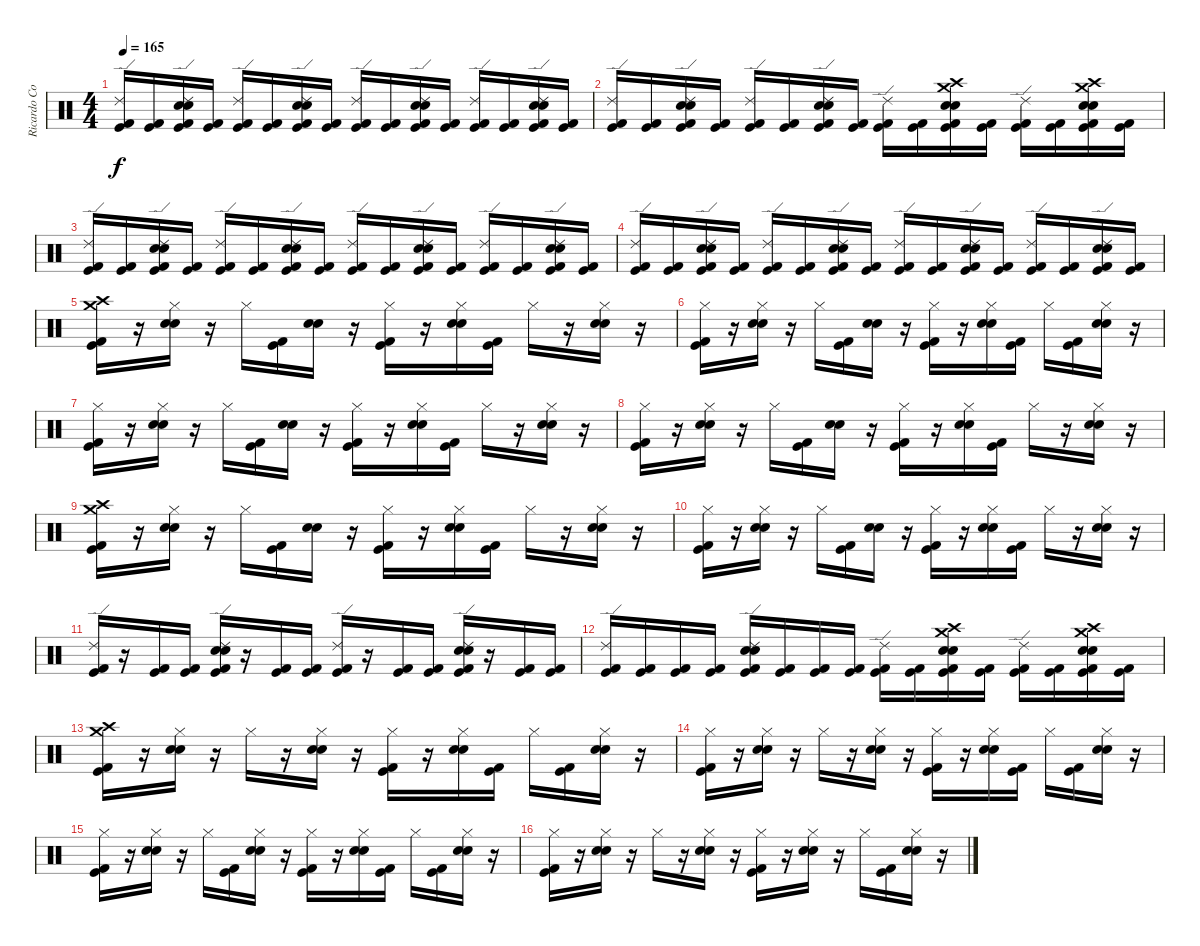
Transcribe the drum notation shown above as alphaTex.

\track ("Ricardo Confessori" "Ricardo Co") {instrument percussion}
\staff {score}
\articulation defaults
\ts (4 4)
\tempo 165
\clef neutral
\ks c
("Ride (edge) 2" "Kick (hit) 2" "Kick (hit)").16{dy f} ("Kick (hit) 2" "Kick (hit)").16 ("Ride (edge) 2" "Electric Snare (hit)" "Snare (hit) 2" "Kick (hit) 2" "Kick (hit)").16 ("Kick (hit) 2" "Kick (hit)").16 ("Ride (edge) 2" "Kick (hit) 2" "Kick (hit)").16 ("Kick (hit) 2" "Kick (hit)").16 ("Ride (edge) 2" "Electric Snare (hit)" "Snare (hit) 2" "Kick (hit) 2" "Kick (hit)").16 ("Kick (hit) 2" "Kick (hit)").16 ("Ride (edge) 2" "Kick (hit) 2" "Kick (hit)").16 ("Kick (hit) 2" "Kick (hit)").16 ("Ride (edge) 2" "Electric Snare (hit)" "Snare (hit) 2" "Kick (hit) 2" "Kick (hit)").16 ("Kick (hit) 2" "Kick (hit)").16 ("Ride (edge) 2" "Kick (hit) 2" "Kick (hit)").16 ("Kick (hit) 2" "Kick (hit)").16 ("Ride (edge) 2" "Electric Snare (hit)" "Snare (hit) 2" "Kick (hit) 2" "Kick (hit)").16 ("Kick (hit) 2" "Kick (hit)").16 |
("Ride (edge) 2" "Kick (hit) 2" "Kick (hit)").16 ("Kick (hit) 2" "Kick (hit)").16 ("Ride (edge) 2" "Electric Snare (hit)" "Snare (hit) 2" "Kick (hit) 2" "Kick (hit)").16 ("Kick (hit) 2" "Kick (hit)").16 ("Ride (edge) 2" "Kick (hit) 2" "Kick (hit)").16 ("Kick (hit) 2" "Kick (hit)").16 ("Ride (edge) 2" "Electric Snare (hit)" "Snare (hit) 2" "Kick (hit) 2" "Kick (hit)").16 ("Kick (hit) 2" "Kick (hit)").16 ("Ride (edge) 2" "Kick (hit) 2" "Kick (hit)").16 ("Kick (hit) 2" "Kick (hit)").16 ("Crash high (hit)" "Crash medium (hit)" "Electric Snare (hit)" "Snare (hit) 2" "Kick (hit) 2" "Kick (hit)").16 ("Kick (hit) 2" "Kick (hit)").16 ("Ride (edge) 2" "Kick (hit) 2" "Kick (hit)").16 ("Kick (hit) 2" "Kick (hit)").16 ("Crash high (hit)" "Crash medium (hit)" "Electric Snare (hit)" "Snare (hit) 2" "Kick (hit) 2" "Kick (hit)").16 ("Kick (hit) 2" "Kick (hit)").16 |
("Ride (edge) 2" "Kick (hit) 2" "Kick (hit)").16 ("Kick (hit) 2" "Kick (hit)").16 ("Ride (edge) 2" "Electric Snare (hit)" "Snare (hit) 2" "Kick (hit) 2" "Kick (hit)").16 ("Kick (hit) 2" "Kick (hit)").16 ("Ride (edge) 2" "Kick (hit) 2" "Kick (hit)").16 ("Kick (hit) 2" "Kick (hit)").16 ("Ride (edge) 2" "Electric Snare (hit)" "Snare (hit) 2" "Kick (hit) 2" "Kick (hit)").16 ("Kick (hit) 2" "Kick (hit)").16 ("Ride (edge) 2" "Kick (hit) 2" "Kick (hit)").16 ("Kick (hit) 2" "Kick (hit)").16 ("Ride (edge) 2" "Electric Snare (hit)" "Snare (hit) 2" "Kick (hit) 2" "Kick (hit)").16 ("Kick (hit) 2" "Kick (hit)").16 ("Ride (edge) 2" "Kick (hit) 2" "Kick (hit)").16 ("Kick (hit) 2" "Kick (hit)").16 ("Ride (edge) 2" "Electric Snare (hit)" "Snare (hit) 2" "Kick (hit) 2" "Kick (hit)").16 ("Kick (hit) 2" "Kick (hit)").16 |
("Ride (edge) 2" "Kick (hit) 2" "Kick (hit)").16 ("Kick (hit) 2" "Kick (hit)").16 ("Ride (edge) 2" "Electric Snare (hit)" "Snare (hit) 2" "Kick (hit) 2" "Kick (hit)").16 ("Kick (hit) 2" "Kick (hit)").16 ("Ride (edge) 2" "Kick (hit) 2" "Kick (hit)").16 ("Kick (hit) 2" "Kick (hit)").16 ("Ride (edge) 2" "Electric Snare (hit)" "Snare (hit) 2" "Kick (hit) 2" "Kick (hit)").16 ("Kick (hit) 2" "Kick (hit)").16 ("Ride (edge) 2" "Kick (hit) 2" "Kick (hit)").16 ("Kick (hit) 2" "Kick (hit)").16 ("Ride (edge) 2" "Electric Snare (hit)" "Snare (hit) 2" "Kick (hit) 2" "Kick (hit)").16 ("Kick (hit) 2" "Kick (hit)").16 ("Ride (edge) 2" "Kick (hit) 2" "Kick (hit)").16 ("Kick (hit) 2" "Kick (hit)").16 ("Ride (edge) 2" "Electric Snare (hit)" "Snare (hit) 2" "Kick (hit) 2" "Kick (hit)").16 ("Kick (hit) 2" "Kick (hit)").16 |
("Crash high (hit)" "Crash medium (hit)" "Kick (hit) 2" "Kick (hit)").16 r.16 ("Hi-Hat (closed)" "Electric Snare (hit)" "Snare (hit) 2").16 r.16 "Hi-Hat (closed)".16 ("Kick (hit) 2" "Kick (hit)").16 ("Electric Snare (hit)" "Snare (hit) 2").16 r.16 ("Hi-Hat (closed)" "Kick (hit) 2" "Kick (hit)").16 r.16 ("Hi-Hat (closed)" "Electric Snare (hit)" "Snare (hit) 2").16 ("Kick (hit) 2" "Kick (hit)").16 "Hi-Hat (closed)".16 r.16 ("Hi-Hat (closed)" "Electric Snare (hit)" "Snare (hit) 2").16 r.16 |
("Hi-Hat (closed)" "Kick (hit) 2" "Kick (hit)").16 r.16 ("Hi-Hat (closed)" "Electric Snare (hit)" "Snare (hit) 2").16 r.16 "Hi-Hat (closed)".16 ("Kick (hit) 2" "Kick (hit)").16 ("Electric Snare (hit)" "Snare (hit) 2").16 r.16 ("Hi-Hat (closed)" "Kick (hit) 2" "Kick (hit)").16 r.16 ("Hi-Hat (closed)" "Electric Snare (hit)" "Snare (hit) 2").16 ("Kick (hit) 2" "Kick (hit)").16 "Hi-Hat (closed)".16 ("Kick (hit) 2" "Kick (hit)").16 ("Hi-Hat (closed)" "Electric Snare (hit)" "Snare (hit) 2").16 r.16 |
("Hi-Hat (closed)" "Kick (hit) 2" "Kick (hit)").16 r.16 ("Hi-Hat (closed)" "Electric Snare (hit)" "Snare (hit) 2").16 r.16 "Hi-Hat (closed)".16 ("Kick (hit) 2" "Kick (hit)").16 ("Electric Snare (hit)" "Snare (hit) 2").16 r.16 ("Hi-Hat (closed)" "Kick (hit) 2" "Kick (hit)").16 r.16 ("Hi-Hat (closed)" "Electric Snare (hit)" "Snare (hit) 2").16 ("Kick (hit) 2" "Kick (hit)").16 "Hi-Hat (closed)".16 r.16 ("Hi-Hat (closed)" "Electric Snare (hit)" "Snare (hit) 2").16 r.16 |
("Hi-Hat (closed)" "Kick (hit) 2" "Kick (hit)").16 r.16 ("Hi-Hat (closed)" "Electric Snare (hit)" "Snare (hit) 2").16 r.16 "Hi-Hat (closed)".16 ("Kick (hit) 2" "Kick (hit)").16 ("Electric Snare (hit)" "Snare (hit) 2").16 r.16 ("Hi-Hat (closed)" "Kick (hit) 2" "Kick (hit)").16 r.16 ("Hi-Hat (closed)" "Electric Snare (hit)" "Snare (hit) 2").16 ("Kick (hit) 2" "Kick (hit)").16 "Hi-Hat (closed)".16 r.16 ("Hi-Hat (closed)" "Electric Snare (hit)" "Snare (hit) 2").16 r.16 |
("Crash medium (hit)" "Crash high (hit)" "Kick (hit) 2" "Kick (hit)").16 r.16 ("Hi-Hat (closed)" "Electric Snare (hit)" "Snare (hit) 2").16 r.16 "Hi-Hat (closed)".16 ("Kick (hit) 2" "Kick (hit)").16 ("Electric Snare (hit)" "Snare (hit) 2").16 r.16 ("Hi-Hat (closed)" "Kick (hit) 2" "Kick (hit)").16 r.16 ("Hi-Hat (closed)" "Electric Snare (hit)" "Snare (hit) 2").16 ("Kick (hit) 2" "Kick (hit)").16 "Hi-Hat (closed)".16 r.16 ("Hi-Hat (closed)" "Electric Snare (hit)" "Snare (hit) 2").16 r.16 |
("Hi-Hat (closed)" "Kick (hit) 2" "Kick (hit)").16 r.16 ("Hi-Hat (closed)" "Electric Snare (hit)" "Snare (hit) 2").16 r.16 "Hi-Hat (closed)".16 ("Kick (hit) 2" "Kick (hit)").16 ("Electric Snare (hit)" "Snare (hit) 2").16 r.16 ("Hi-Hat (closed)" "Kick (hit) 2" "Kick (hit)").16 r.16 ("Hi-Hat (closed)" "Electric Snare (hit)" "Snare (hit) 2").16 ("Kick (hit) 2" "Kick (hit)").16 "Hi-Hat (closed)".16 r.16 ("Hi-Hat (closed)" "Electric Snare (hit)" "Snare (hit) 2").16 r.16 |
("Ride (edge) 2" "Kick (hit) 2" "Kick (hit)").16 r.16 ("Kick (hit) 2" "Kick (hit)").16 ("Kick (hit) 2" "Kick (hit)").16 ("Electric Snare (hit)" "Snare (hit) 2" "Ride (edge) 2" "Kick (hit) 2" "Kick (hit)").16 r.16 ("Kick (hit) 2" "Kick (hit)").16 ("Kick (hit) 2" "Kick (hit)").16 ("Ride (edge) 2" "Kick (hit) 2" "Kick (hit)").16 r.16 ("Kick (hit) 2" "Kick (hit)").16 ("Kick (hit) 2" "Kick (hit)").16 ("Electric Snare (hit)" "Snare (hit) 2" "Ride (edge) 2" "Kick (hit) 2" "Kick (hit)").16 r.16 ("Kick (hit) 2" "Kick (hit)").16 ("Kick (hit) 2" "Kick (hit)").16 |
("Ride (edge) 2" "Kick (hit) 2" "Kick (hit)").16 ("Kick (hit) 2" "Kick (hit)").16 ("Kick (hit) 2" "Kick (hit)").16 ("Kick (hit) 2" "Kick (hit)").16 ("Electric Snare (hit)" "Snare (hit) 2" "Ride (edge) 2" "Kick (hit) 2" "Kick (hit)").16 ("Kick (hit) 2" "Kick (hit)").16 ("Kick (hit) 2" "Kick (hit)").16 ("Kick (hit) 2" "Kick (hit)").16 ("Ride (edge) 2" "Kick (hit) 2" "Kick (hit)").16 ("Kick (hit) 2" "Kick (hit)").16 ("Crash high (hit)" "Electric Snare (hit)" "Snare (hit) 2" "Crash medium (hit)" "Kick (hit) 2" "Kick (hit)").16 ("Kick (hit) 2" "Kick (hit)").16 ("Ride (edge) 2" "Kick (hit) 2" "Kick (hit)").16 ("Kick (hit) 2" "Kick (hit)").16 ("Electric Snare (hit)" "Snare (hit) 2" "Crash high (hit)" "Crash medium (hit)" "Kick (hit) 2" "Kick (hit)").16 ("Kick (hit) 2" "Kick (hit)").16 |
("Crash high (hit)" "Crash medium (hit)" "Kick (hit) 2" "Kick (hit)").16 r.16 ("Hi-Hat (closed)" "Electric Snare (hit)" "Snare (hit) 2").16 r.16 "Hi-Hat (closed)".16 r.16 ("Hi-Hat (closed)" "Electric Snare (hit)" "Snare (hit) 2").16 r.16 ("Hi-Hat (closed)" "Kick (hit) 2" "Kick (hit)").16 r.16 ("Hi-Hat (closed)" "Electric Snare (hit)" "Snare (hit) 2").16 ("Kick (hit) 2" "Kick (hit)").16 "Hi-Hat (closed)".16 ("Kick (hit) 2" "Kick (hit)").16 ("Hi-Hat (closed)" "Electric Snare (hit)" "Snare (hit) 2").16 r.16 |
("Hi-Hat (closed)" "Kick (hit) 2" "Kick (hit)").16 r.16 ("Hi-Hat (closed)" "Electric Snare (hit)" "Snare (hit) 2").16 r.16 "Hi-Hat (closed)".16 r.16 ("Electric Snare (hit)" "Hi-Hat (closed)" "Snare (hit) 2").16 r.16 ("Hi-Hat (closed)" "Kick (hit) 2" "Kick (hit)").16 r.16 ("Hi-Hat (closed)" "Electric Snare (hit)" "Snare (hit) 2").16 ("Kick (hit) 2" "Kick (hit)").16 "Hi-Hat (closed)".16 ("Kick (hit) 2" "Kick (hit)").16 ("Hi-Hat (closed)" "Electric Snare (hit)" "Snare (hit) 2").16 r.16 |
("Hi-Hat (closed)" "Kick (hit) 2" "Kick (hit)").16 r.16 ("Hi-Hat (closed)" "Electric Snare (hit)" "Snare (hit) 2").16 r.16 "Hi-Hat (closed)".16 ("Kick (hit) 2" "Kick (hit)").16 ("Electric Snare (hit)" "Hi-Hat (closed)" "Snare (hit) 2").16 r.16 ("Hi-Hat (closed)" "Kick (hit) 2" "Kick (hit)").16 r.16 ("Hi-Hat (closed)" "Electric Snare (hit)" "Snare (hit) 2").16 ("Kick (hit) 2" "Kick (hit)").16 "Hi-Hat (closed)".16 ("Kick (hit) 2" "Kick (hit)").16 ("Hi-Hat (closed)" "Electric Snare (hit)" "Snare (hit) 2").16 r.16 |
("Hi-Hat (closed)" "Kick (hit) 2" "Kick (hit)").16 r.16 ("Hi-Hat (closed)" "Electric Snare (hit)" "Snare (hit) 2").16 r.16 "Hi-Hat (closed)".16 r.16 ("Electric Snare (hit)" "Hi-Hat (closed)" "Snare (hit) 2").16 r.16 ("Hi-Hat (closed)" "Kick (hit) 2" "Kick (hit)").16 r.16 ("Hi-Hat (closed)" "Electric Snare (hit)" "Snare (hit) 2").16 r.16 "Hi-Hat (closed)".16 ("Kick (hit) 2" "Kick (hit)").16 ("Hi-Hat (closed)" "Electric Snare (hit)" "Snare (hit) 2").16 r.16
